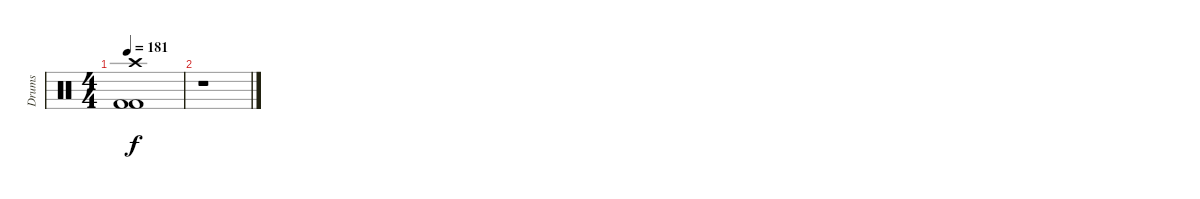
\track ("Drums" "Drums") {instrument percussion}
\staff {score}
\articulation defaults
\ts (4 4)
\tempo 181
\clef neutral
\ks c
("Crash high (hit)" "Kick (hit) 2" "Kick (hit) 2").1{dy f} |
r.1
